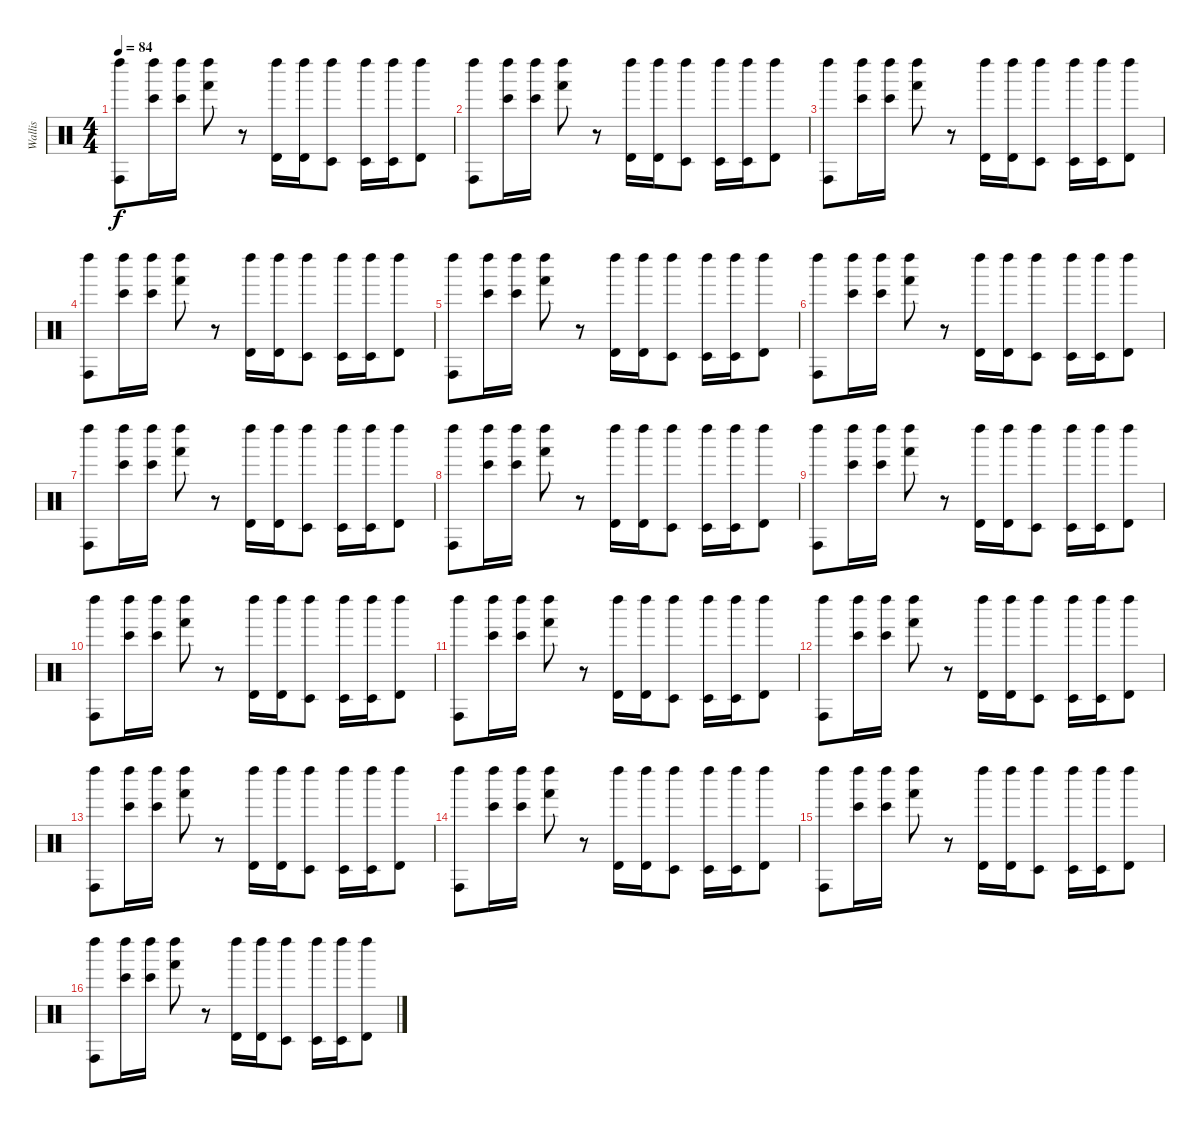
\track ("Wallis" "Wallis") {instrument percussion}
\staff {score}
\articulation defaults
\ts (4 4)
\tempo 84
\clef neutral
\ks c
("Left Maraca (hit)" "Conga high (hit)").8{dy f} ("Left Maraca (hit)" "Bongo High (hit)").16 ("Left Maraca (hit)" "Bongo High (hit)").16 ("Left Maraca (hit)" "Hand (hit)").8 r.8 ("Left Maraca (hit)" "Timbale high (hit)").16 ("Left Maraca (hit)" "Timbale high (hit)").16 ("Left Maraca (hit)" "Timbale low (hit)").8 ("Left Maraca (hit)" "Timbale low (hit)").16 ("Left Maraca (hit)" "Timbale low (hit)").16 ("Left Maraca (hit)" "Timbale high (hit)").8 |
("Left Maraca (hit)" "Conga high (hit)").8 ("Left Maraca (hit)" "Bongo High (hit)").16 ("Left Maraca (hit)" "Bongo High (hit)").16 ("Left Maraca (hit)" "Hand (hit)").8 r.8 ("Left Maraca (hit)" "Timbale high (hit)").16 ("Left Maraca (hit)" "Timbale high (hit)").16 ("Left Maraca (hit)" "Timbale low (hit)").8 ("Left Maraca (hit)" "Timbale low (hit)").16 ("Left Maraca (hit)" "Timbale low (hit)").16 ("Left Maraca (hit)" "Timbale high (hit)").8 |
("Left Maraca (hit)" "Conga high (hit)").8 ("Left Maraca (hit)" "Bongo High (hit)").16 ("Left Maraca (hit)" "Bongo High (hit)").16 ("Left Maraca (hit)" "Hand (hit)").8 r.8 ("Left Maraca (hit)" "Timbale high (hit)").16 ("Left Maraca (hit)" "Timbale high (hit)").16 ("Left Maraca (hit)" "Timbale low (hit)").8 ("Left Maraca (hit)" "Timbale low (hit)").16 ("Left Maraca (hit)" "Timbale low (hit)").16 ("Left Maraca (hit)" "Timbale high (hit)").8 |
("Left Maraca (hit)" "Conga high (hit)").8 ("Left Maraca (hit)" "Bongo High (hit)").16 ("Left Maraca (hit)" "Bongo High (hit)").16 ("Left Maraca (hit)" "Hand (hit)").8 r.8 ("Left Maraca (hit)" "Timbale high (hit)").16 ("Left Maraca (hit)" "Timbale high (hit)").16 ("Left Maraca (hit)" "Timbale low (hit)").8 ("Left Maraca (hit)" "Timbale low (hit)").16 ("Left Maraca (hit)" "Timbale low (hit)").16 ("Left Maraca (hit)" "Timbale high (hit)").8 |
("Left Maraca (hit)" "Conga high (hit)").8 ("Left Maraca (hit)" "Bongo High (hit)").16 ("Left Maraca (hit)" "Bongo High (hit)").16 ("Left Maraca (hit)" "Hand (hit)").8 r.8 ("Left Maraca (hit)" "Timbale high (hit)").16 ("Left Maraca (hit)" "Timbale high (hit)").16 ("Left Maraca (hit)" "Timbale low (hit)").8 ("Left Maraca (hit)" "Timbale low (hit)").16 ("Left Maraca (hit)" "Timbale low (hit)").16 ("Left Maraca (hit)" "Timbale high (hit)").8 |
("Left Maraca (hit)" "Conga high (hit)").8 ("Left Maraca (hit)" "Bongo High (hit)").16 ("Left Maraca (hit)" "Bongo High (hit)").16 ("Left Maraca (hit)" "Hand (hit)").8 r.8 ("Left Maraca (hit)" "Timbale high (hit)").16 ("Left Maraca (hit)" "Timbale high (hit)").16 ("Left Maraca (hit)" "Timbale low (hit)").8 ("Left Maraca (hit)" "Timbale low (hit)").16 ("Left Maraca (hit)" "Timbale low (hit)").16 ("Left Maraca (hit)" "Timbale high (hit)").8 |
("Left Maraca (hit)" "Conga high (hit)").8 ("Left Maraca (hit)" "Bongo High (hit)").16 ("Left Maraca (hit)" "Bongo High (hit)").16 ("Left Maraca (hit)" "Hand (hit)").8 r.8 ("Left Maraca (hit)" "Timbale high (hit)").16 ("Left Maraca (hit)" "Timbale high (hit)").16 ("Left Maraca (hit)" "Timbale low (hit)").8 ("Left Maraca (hit)" "Timbale low (hit)").16 ("Left Maraca (hit)" "Timbale low (hit)").16 ("Left Maraca (hit)" "Timbale high (hit)").8 |
("Left Maraca (hit)" "Conga high (hit)").8 ("Left Maraca (hit)" "Bongo High (hit)").16 ("Left Maraca (hit)" "Bongo High (hit)").16 ("Left Maraca (hit)" "Hand (hit)").8 r.8 ("Left Maraca (hit)" "Timbale high (hit)").16 ("Left Maraca (hit)" "Timbale high (hit)").16 ("Left Maraca (hit)" "Timbale low (hit)").8 ("Left Maraca (hit)" "Timbale low (hit)").16 ("Left Maraca (hit)" "Timbale low (hit)").16 ("Left Maraca (hit)" "Timbale high (hit)").8 |
("Left Maraca (hit)" "Conga high (hit)").8 ("Left Maraca (hit)" "Bongo High (hit)").16 ("Left Maraca (hit)" "Bongo High (hit)").16 ("Left Maraca (hit)" "Hand (hit)").8 r.8 ("Left Maraca (hit)" "Timbale high (hit)").16 ("Left Maraca (hit)" "Timbale high (hit)").16 ("Left Maraca (hit)" "Timbale low (hit)").8 ("Left Maraca (hit)" "Timbale low (hit)").16 ("Left Maraca (hit)" "Timbale low (hit)").16 ("Left Maraca (hit)" "Timbale high (hit)").8 |
("Left Maraca (hit)" "Conga high (hit)").8 ("Left Maraca (hit)" "Bongo High (hit)").16 ("Left Maraca (hit)" "Bongo High (hit)").16 ("Left Maraca (hit)" "Hand (hit)").8 r.8 ("Left Maraca (hit)" "Timbale high (hit)").16 ("Left Maraca (hit)" "Timbale high (hit)").16 ("Left Maraca (hit)" "Timbale low (hit)").8 ("Left Maraca (hit)" "Timbale low (hit)").16 ("Left Maraca (hit)" "Timbale low (hit)").16 ("Left Maraca (hit)" "Timbale high (hit)").8 |
("Left Maraca (hit)" "Conga high (hit)").8 ("Left Maraca (hit)" "Bongo High (hit)").16 ("Left Maraca (hit)" "Bongo High (hit)").16 ("Left Maraca (hit)" "Hand (hit)").8 r.8 ("Left Maraca (hit)" "Timbale high (hit)").16 ("Left Maraca (hit)" "Timbale high (hit)").16 ("Left Maraca (hit)" "Timbale low (hit)").8 ("Left Maraca (hit)" "Timbale low (hit)").16 ("Left Maraca (hit)" "Timbale low (hit)").16 ("Left Maraca (hit)" "Timbale high (hit)").8 |
("Left Maraca (hit)" "Conga high (hit)").8 ("Left Maraca (hit)" "Bongo High (hit)").16 ("Left Maraca (hit)" "Bongo High (hit)").16 ("Left Maraca (hit)" "Hand (hit)").8 r.8 ("Left Maraca (hit)" "Timbale high (hit)").16 ("Left Maraca (hit)" "Timbale high (hit)").16 ("Left Maraca (hit)" "Timbale low (hit)").8 ("Left Maraca (hit)" "Timbale low (hit)").16 ("Left Maraca (hit)" "Timbale low (hit)").16 ("Left Maraca (hit)" "Timbale high (hit)").8 |
("Left Maraca (hit)" "Conga high (hit)").8 ("Left Maraca (hit)" "Bongo High (hit)").16 ("Left Maraca (hit)" "Bongo High (hit)").16 ("Left Maraca (hit)" "Hand (hit)").8 r.8 ("Left Maraca (hit)" "Timbale high (hit)").16 ("Left Maraca (hit)" "Timbale high (hit)").16 ("Left Maraca (hit)" "Timbale low (hit)").8 ("Left Maraca (hit)" "Timbale low (hit)").16 ("Left Maraca (hit)" "Timbale low (hit)").16 ("Left Maraca (hit)" "Timbale high (hit)").8 |
("Left Maraca (hit)" "Conga high (hit)").8 ("Left Maraca (hit)" "Bongo High (hit)").16 ("Left Maraca (hit)" "Bongo High (hit)").16 ("Left Maraca (hit)" "Hand (hit)").8 r.8 ("Left Maraca (hit)" "Timbale high (hit)").16 ("Left Maraca (hit)" "Timbale high (hit)").16 ("Left Maraca (hit)" "Timbale low (hit)").8 ("Left Maraca (hit)" "Timbale low (hit)").16 ("Left Maraca (hit)" "Timbale low (hit)").16 ("Left Maraca (hit)" "Timbale high (hit)").8 |
("Left Maraca (hit)" "Conga high (hit)").8 ("Left Maraca (hit)" "Bongo High (hit)").16 ("Left Maraca (hit)" "Bongo High (hit)").16 ("Left Maraca (hit)" "Hand (hit)").8 r.8 ("Left Maraca (hit)" "Timbale high (hit)").16 ("Left Maraca (hit)" "Timbale high (hit)").16 ("Left Maraca (hit)" "Timbale low (hit)").8 ("Left Maraca (hit)" "Timbale low (hit)").16 ("Left Maraca (hit)" "Timbale low (hit)").16 ("Left Maraca (hit)" "Timbale high (hit)").8 |
("Left Maraca (hit)" "Conga high (hit)").8 ("Left Maraca (hit)" "Bongo High (hit)").16 ("Left Maraca (hit)" "Bongo High (hit)").16 ("Left Maraca (hit)" "Hand (hit)").8 r.8 ("Left Maraca (hit)" "Timbale high (hit)").16 ("Left Maraca (hit)" "Timbale high (hit)").16 ("Left Maraca (hit)" "Timbale low (hit)").8 ("Left Maraca (hit)" "Timbale low (hit)").16 ("Left Maraca (hit)" "Timbale low (hit)").16 ("Left Maraca (hit)" "Timbale high (hit)").8
